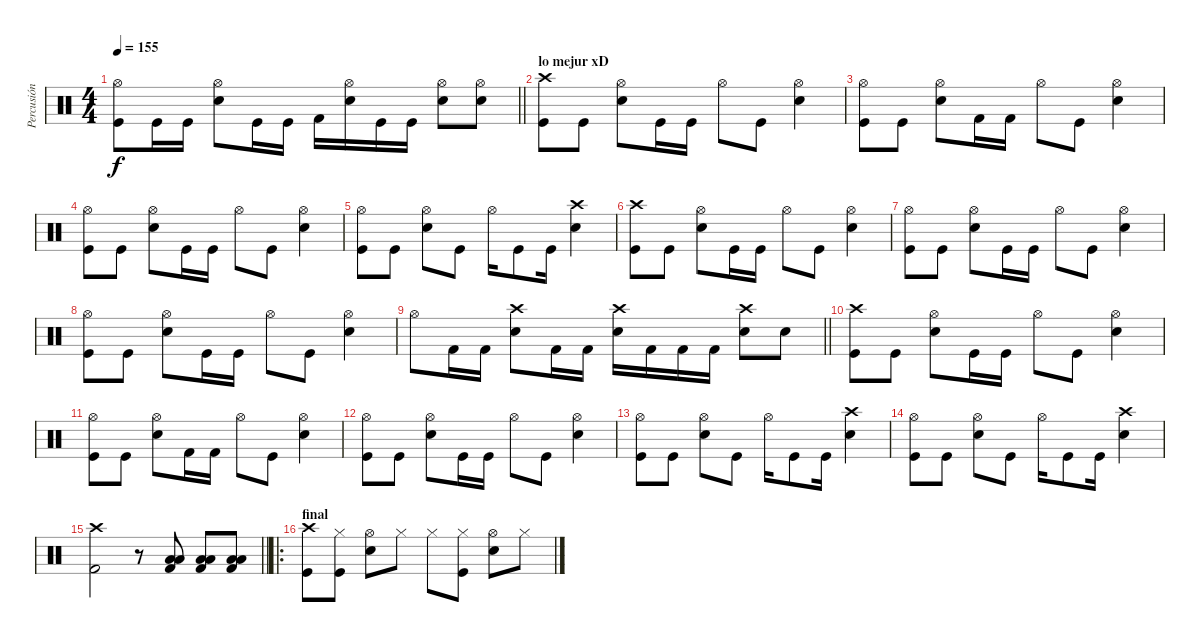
\track ("Percusión" "Percusión") {instrument percussion}
\staff {score}
\articulation defaults
\ts (4 4)
\tempo 155
\clef neutral
\barLineRight lightlight
\ks c
("Hi-Hat (open)" "Kick (hit)").8{dy f} "Kick (hit)".16 "Kick (hit)".16 ("Hi-Hat (open)" "Snare (hit) 2").8 "Kick (hit)".16 "Kick (hit)".16 "Kick (hit) 2".16 ("Hi-Hat (open)" "Snare (hit) 2").16 "Kick (hit)".16 "Kick (hit)".16 ("Hi-Hat (open)" "Snare (hit) 2").8 ("Hi-Hat (open)" "Snare (hit) 2").8 |
\section ("" "lo mejur xD")
("Crash high (hit)" "Kick (hit)").8 "Kick (hit)".8 ("Hi-Hat (open)" "Snare (hit) 2").8 "Kick (hit)".16 "Kick (hit)".16 "Hi-Hat (open)".8 "Kick (hit)".8 ("Hi-Hat (open)" "Snare (hit) 2").4 |
("Hi-Hat (open)" "Kick (hit)").8 "Kick (hit)".8 ("Hi-Hat (open)" "Snare (hit) 2").8 "Kick (hit) 2".16 "Kick (hit) 2".16 "Hi-Hat (open)".8 "Kick (hit)".8 ("Hi-Hat (open)" "Snare (hit) 2").4 |
("Hi-Hat (open)" "Kick (hit)").8 "Kick (hit)".8 ("Hi-Hat (open)" "Snare (hit) 2").8 "Kick (hit)".16 "Kick (hit)".16 "Hi-Hat (open)".8 "Kick (hit)".8 ("Hi-Hat (open)" "Snare (hit) 2").4 |
("Hi-Hat (open)" "Kick (hit)").8 "Kick (hit)".8 ("Hi-Hat (open)" "Snare (hit) 2").8 "Kick (hit)".8 "Hi-Hat (open)".16 "Kick (hit)".8 "Kick (hit)".16 ("Crash high (hit)" "Snare (hit) 2").4 |
("Crash high (hit)" "Kick (hit)").8 "Kick (hit)".8 ("Hi-Hat (open)" "Snare (hit) 2").8 "Kick (hit)".16 "Kick (hit)".16 "Hi-Hat (open)".8 "Kick (hit)".8 ("Hi-Hat (open)" "Snare (hit) 2").4 |
("Hi-Hat (open)" "Kick (hit)").8 "Kick (hit)".8 ("Hi-Hat (open)" "Snare (hit) 2").8 "Kick (hit)".16 "Kick (hit)".16 "Hi-Hat (open)".8 "Kick (hit)".8 ("Hi-Hat (open)" "Snare (hit) 2").4 |
("Hi-Hat (open)" "Kick (hit)").8 "Kick (hit)".8 ("Hi-Hat (open)" "Snare (hit) 2").8 "Kick (hit)".16 "Kick (hit)".16 "Hi-Hat (open)".8 "Kick (hit)".8 ("Hi-Hat (open)" "Snare (hit) 2").4 |
\barLineRight lightlight "Hi-Hat (open)".8 "Kick (hit) 2".16 "Kick (hit) 2".16
("Crash high (hit)" "Snare (hit) 2").8 "Kick (hit) 2".16 "Kick (hit) 2".16 ("Crash high (hit)" "Snare (hit) 2").16 "Kick (hit) 2".16 "Kick (hit) 2".16 "Kick (hit) 2".16 ("Crash high (hit)" "Snare (hit) 2").8 "Snare (hit) 2".8 |
("Crash high (hit)" "Kick (hit)").8 "Kick (hit)".8 ("Hi-Hat (open)" "Snare (hit) 2").8 "Kick (hit)".16 "Kick (hit)".16 "Hi-Hat (open)".8 "Kick (hit)".8 ("Hi-Hat (open)" "Snare (hit) 2").4 |
("Hi-Hat (open)" "Kick (hit)").8 "Kick (hit)".8 ("Hi-Hat (open)" "Snare (hit) 2").8 "Kick (hit) 2".16 "Kick (hit) 2".16 "Hi-Hat (open)".8 "Kick (hit)".8 ("Hi-Hat (open)" "Snare (hit) 2").4 |
("Hi-Hat (open)" "Kick (hit)").8 "Kick (hit)".8 ("Hi-Hat (open)" "Snare (hit) 2").8 "Kick (hit)".16 "Kick (hit)".16 "Hi-Hat (open)".8 "Kick (hit)".8 ("Hi-Hat (open)" "Snare (hit) 2").4 |
("Hi-Hat (open)" "Kick (hit)").8 "Kick (hit)".8 ("Hi-Hat (open)" "Snare (hit) 2").8 "Kick (hit)".8 "Hi-Hat (open)".16 "Kick (hit)".8 "Kick (hit)".16 ("Crash high (hit)" "Snare (hit) 2").4 |
("Hi-Hat (open)" "Kick (hit)").8 "Kick (hit)".8 ("Hi-Hat (open)" "Snare (hit) 2").8 "Kick (hit)".8 "Hi-Hat (open)".16 "Kick (hit)".8 "Kick (hit)".16 ("Crash high (hit)" "Snare (hit) 2").4 |
\barLineRight lightlight
("Crash high (hit)" "Kick (hit) 2").2 r.8 ("Low Tom (hit)" "Low Floor Tom (hit)" "Kick (hit) 2").8 ("Low Tom (hit)" "Low Floor Tom (hit)" "Kick (hit) 2").8 ("Low Tom (hit)" "Low Floor Tom (hit)" "Kick (hit) 2").8 |
\ro
\section ("" "final")
("Crash high (hit)" "Kick (hit)").8 ("Hi-Hat (closed)" "Kick (hit)").8 ("Hi-Hat (open)" "Snare (hit) 2").8 "Hi-Hat (closed)".8 "Hi-Hat (closed)".8 ("Hi-Hat (closed)" "Kick (hit)").8 ("Hi-Hat (open)" "Snare (hit) 2").8 "Hi-Hat (closed)".8
